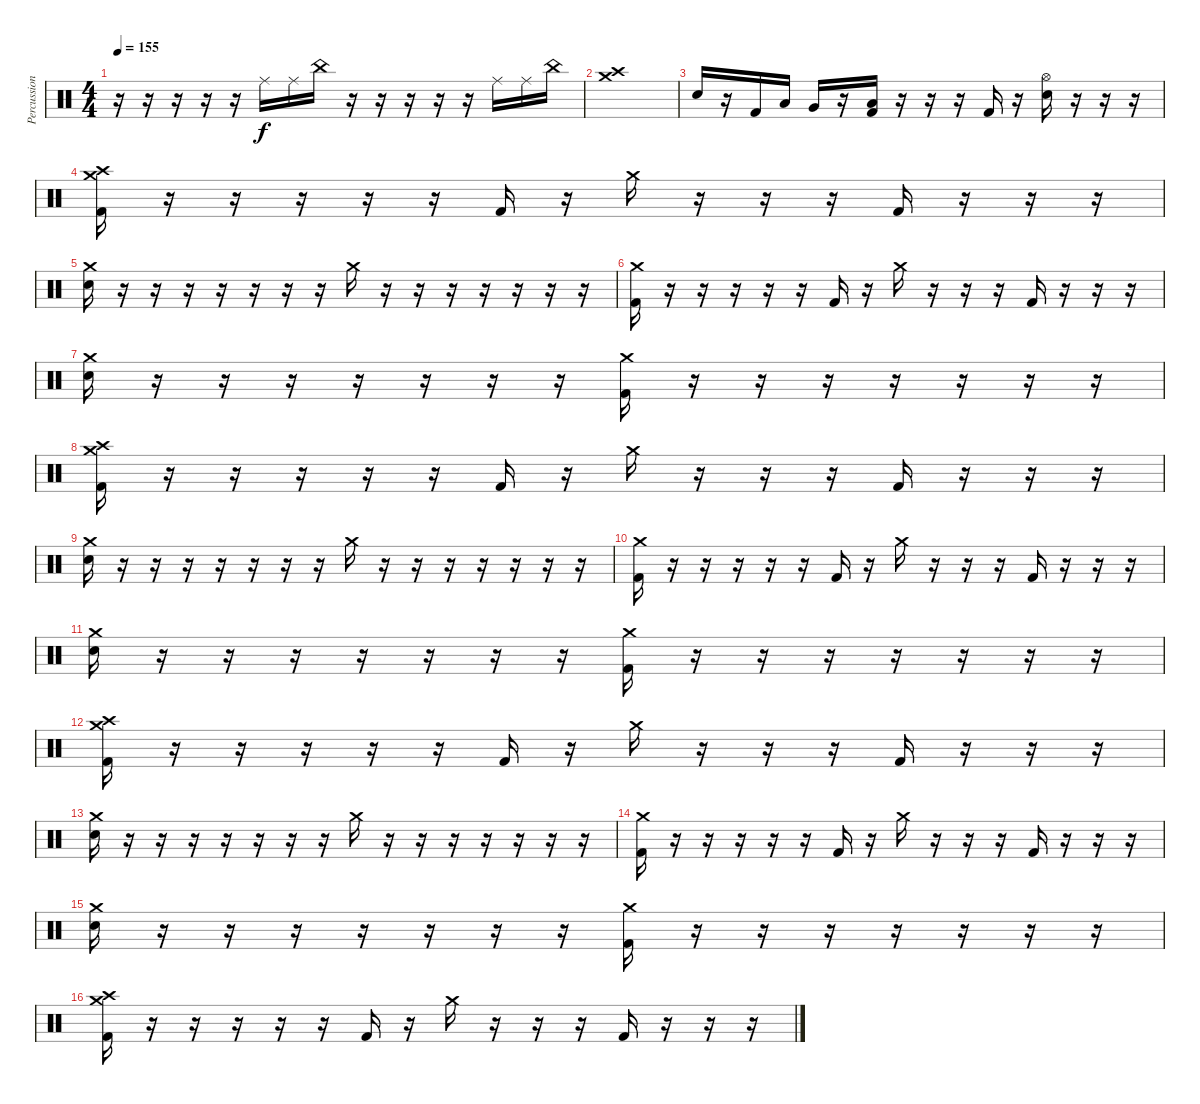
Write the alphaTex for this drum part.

\track ("Percussion" "Percussion") {instrument percussion}
\staff {score}
\articulation defaults
\ts (4 4)
\tempo 155
\clef neutral
\ks c
r.16{dy f} r.16 r.16 r.16 r.16 "Ride (middle)".16 "Ride (middle)".16 "China (hit)".16 r.16 r.16 r.16 r.16 r.16 "Ride (middle)".16 "Ride (middle)".16 "China (hit)".16 |
("Crash medium (hit)" "Crash high (hit)").1 |
"Snare (hit) 2".16 r.16 "Kick (hit) 2".16 "Low Tom (hit)".16 "Very Low Tom (hit)".16 r.16 ("Low Floor Tom (hit)" "Kick (hit) 2").16 r.16 r.16 r.16 "Kick (hit) 2".16 r.16 ("Hi-Hat (open)" "Snare (hit) 2").16 r.16 r.16 r.16 |
("Crash high (hit)" "Crash medium (hit)" "Kick (hit) 2").16 r.16 r.16 r.16 r.16 r.16 "Kick (hit) 2".16 r.16 "Crash medium (hit)".16 r.16 r.16 r.16 "Kick (hit) 2".16 r.16 r.16 r.16 |
("Crash medium (hit)" "Snare (hit) 2").16 r.16 r.16 r.16 r.16 r.16 r.16 r.16 "Crash medium (hit)".16 r.16 r.16 r.16 r.16 r.16 r.16 r.16 |
("Crash medium (hit)" "Kick (hit) 2").16 r.16 r.16 r.16 r.16 r.16 "Kick (hit) 2".16 r.16 "Crash medium (hit)".16 r.16 r.16 r.16 "Kick (hit) 2".16 r.16 r.16 r.16 |
("Crash medium (hit)" "Snare (hit) 2").16 r.16 r.16 r.16 r.16 r.16 r.16 r.16 ("Crash medium (hit)" "Kick (hit) 2").16 r.16 r.16 r.16 r.16 r.16 r.16 r.16 |
("Crash high (hit)" "Crash medium (hit)" "Kick (hit) 2").16 r.16 r.16 r.16 r.16 r.16 "Kick (hit) 2".16 r.16 "Crash medium (hit)".16 r.16 r.16 r.16 "Kick (hit) 2".16 r.16 r.16 r.16 |
("Crash medium (hit)" "Snare (hit) 2").16 r.16 r.16 r.16 r.16 r.16 r.16 r.16 "Crash medium (hit)".16 r.16 r.16 r.16 r.16 r.16 r.16 r.16 |
("Crash medium (hit)" "Kick (hit) 2").16 r.16 r.16 r.16 r.16 r.16 "Kick (hit) 2".16 r.16 "Crash medium (hit)".16 r.16 r.16 r.16 "Kick (hit) 2".16 r.16 r.16 r.16 |
("Crash medium (hit)" "Snare (hit) 2").16 r.16 r.16 r.16 r.16 r.16 r.16 r.16 ("Crash medium (hit)" "Kick (hit) 2").16 r.16 r.16 r.16 r.16 r.16 r.16 r.16 |
("Crash high (hit)" "Crash medium (hit)" "Kick (hit) 2").16 r.16 r.16 r.16 r.16 r.16 "Kick (hit) 2".16 r.16 "Crash medium (hit)".16 r.16 r.16 r.16 "Kick (hit) 2".16 r.16 r.16 r.16 |
("Crash medium (hit)" "Snare (hit) 2").16 r.16 r.16 r.16 r.16 r.16 r.16 r.16 "Crash medium (hit)".16 r.16 r.16 r.16 r.16 r.16 r.16 r.16 |
("Crash medium (hit)" "Kick (hit) 2").16 r.16 r.16 r.16 r.16 r.16 "Kick (hit) 2".16 r.16 "Crash medium (hit)".16 r.16 r.16 r.16 "Kick (hit) 2".16 r.16 r.16 r.16 |
("Crash medium (hit)" "Snare (hit) 2").16 r.16 r.16 r.16 r.16 r.16 r.16 r.16 ("Crash medium (hit)" "Kick (hit) 2").16 r.16 r.16 r.16 r.16 r.16 r.16 r.16 |
("Crash high (hit)" "Crash medium (hit)" "Kick (hit) 2").16 r.16 r.16 r.16 r.16 r.16 "Kick (hit) 2".16 r.16 "Crash medium (hit)".16 r.16 r.16 r.16 "Kick (hit) 2".16 r.16 r.16 r.16
